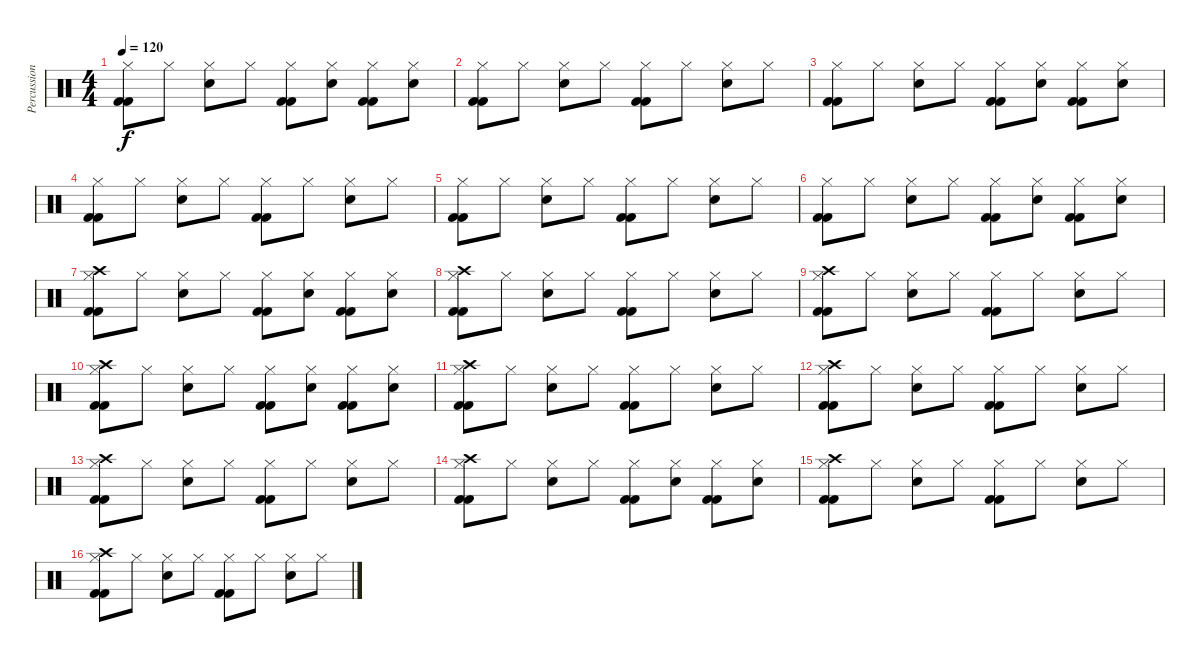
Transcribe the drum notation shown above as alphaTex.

\track ("Percussion" "Percussion") {instrument percussion}
\staff {score}
\articulation defaults
\ts (4 4)
\tempo 120
\clef neutral
\ks c
("Hi-Hat (closed)" "Kick (hit) 2" "Kick (hit) 2").8{dy f} "Hi-Hat (closed)".8 ("Hi-Hat (closed)" "Electric Snare (hit)").8 "Hi-Hat (closed)".8 ("Hi-Hat (closed)" "Kick (hit) 2" "Kick (hit) 2").8 ("Hi-Hat (closed)" "Electric Snare (hit)").8 ("Hi-Hat (closed)" "Kick (hit) 2" "Kick (hit) 2").8 ("Hi-Hat (closed)" "Electric Snare (hit)").8 |
("Hi-Hat (closed)" "Kick (hit) 2" "Kick (hit) 2").8 "Hi-Hat (closed)".8 ("Hi-Hat (closed)" "Electric Snare (hit)").8 "Hi-Hat (closed)".8 ("Hi-Hat (closed)" "Kick (hit) 2" "Kick (hit) 2").8 "Hi-Hat (closed)".8 ("Hi-Hat (closed)" "Electric Snare (hit)").8 "Hi-Hat (closed)".8 |
("Hi-Hat (closed)" "Kick (hit) 2" "Kick (hit) 2").8 "Hi-Hat (closed)".8 ("Hi-Hat (closed)" "Electric Snare (hit)").8 "Hi-Hat (closed)".8 ("Hi-Hat (closed)" "Kick (hit) 2" "Kick (hit) 2").8 ("Hi-Hat (closed)" "Electric Snare (hit)").8 ("Hi-Hat (closed)" "Kick (hit) 2" "Kick (hit) 2").8 ("Hi-Hat (closed)" "Electric Snare (hit)").8 |
("Hi-Hat (closed)" "Kick (hit) 2" "Kick (hit) 2").8 "Hi-Hat (closed)".8 ("Hi-Hat (closed)" "Electric Snare (hit)").8 "Hi-Hat (closed)".8 ("Hi-Hat (closed)" "Kick (hit) 2" "Kick (hit) 2").8 "Hi-Hat (closed)".8 ("Hi-Hat (closed)" "Electric Snare (hit)").8 "Hi-Hat (closed)".8 |
("Hi-Hat (closed)" "Kick (hit) 2" "Kick (hit) 2").8 "Hi-Hat (closed)".8 ("Hi-Hat (closed)" "Electric Snare (hit)").8 "Hi-Hat (closed)".8 ("Hi-Hat (closed)" "Kick (hit) 2" "Kick (hit) 2").8 "Hi-Hat (closed)".8 ("Hi-Hat (closed)" "Electric Snare (hit)").8 "Hi-Hat (closed)".8 |
("Hi-Hat (closed)" "Kick (hit) 2" "Kick (hit) 2").8 "Hi-Hat (closed)".8 ("Hi-Hat (closed)" "Electric Snare (hit)").8 "Hi-Hat (closed)".8 ("Hi-Hat (closed)" "Kick (hit) 2" "Kick (hit) 2").8 ("Hi-Hat (closed)" "Electric Snare (hit)").8 ("Hi-Hat (closed)" "Kick (hit) 2" "Kick (hit) 2").8 ("Hi-Hat (closed)" "Electric Snare (hit)").8 |
("Hi-Hat (closed)" "Crash high (hit)" "Kick (hit) 2" "Kick (hit) 2").8 "Hi-Hat (closed)".8 ("Hi-Hat (closed)" "Electric Snare (hit)").8 "Hi-Hat (closed)".8 ("Hi-Hat (closed)" "Kick (hit) 2" "Kick (hit) 2").8 ("Hi-Hat (closed)" "Electric Snare (hit)").8 ("Hi-Hat (closed)" "Kick (hit) 2" "Kick (hit) 2").8 ("Hi-Hat (closed)" "Electric Snare (hit)").8 |
("Hi-Hat (closed)" "Crash high (hit)" "Kick (hit) 2" "Kick (hit) 2").8 "Hi-Hat (closed)".8 ("Hi-Hat (closed)" "Electric Snare (hit)").8 "Hi-Hat (closed)".8 ("Hi-Hat (closed)" "Kick (hit) 2" "Kick (hit) 2").8 "Hi-Hat (closed)".8 ("Hi-Hat (closed)" "Electric Snare (hit)").8 "Hi-Hat (closed)".8 |
("Hi-Hat (closed)" "Crash high (hit)" "Kick (hit) 2" "Kick (hit) 2").8 "Hi-Hat (closed)".8 ("Hi-Hat (closed)" "Electric Snare (hit)").8 "Hi-Hat (closed)".8 ("Hi-Hat (closed)" "Kick (hit) 2" "Kick (hit) 2").8 "Hi-Hat (closed)".8 ("Hi-Hat (closed)" "Electric Snare (hit)").8 "Hi-Hat (closed)".8 |
("Hi-Hat (closed)" "Crash high (hit)" "Kick (hit) 2" "Kick (hit) 2").8 "Hi-Hat (closed)".8 ("Hi-Hat (closed)" "Electric Snare (hit)").8 "Hi-Hat (closed)".8 ("Hi-Hat (closed)" "Kick (hit) 2" "Kick (hit) 2").8 ("Hi-Hat (closed)" "Electric Snare (hit)").8 ("Hi-Hat (closed)" "Kick (hit) 2" "Kick (hit) 2").8 ("Hi-Hat (closed)" "Electric Snare (hit)").8 |
("Hi-Hat (closed)" "Crash high (hit)" "Kick (hit) 2" "Kick (hit) 2").8 "Hi-Hat (closed)".8 ("Hi-Hat (closed)" "Electric Snare (hit)").8 "Hi-Hat (closed)".8 ("Hi-Hat (closed)" "Kick (hit) 2" "Kick (hit) 2").8 "Hi-Hat (closed)".8 ("Hi-Hat (closed)" "Electric Snare (hit)").8 "Hi-Hat (closed)".8 |
("Hi-Hat (closed)" "Crash high (hit)" "Kick (hit) 2" "Kick (hit) 2").8 "Hi-Hat (closed)".8 ("Hi-Hat (closed)" "Electric Snare (hit)").8 "Hi-Hat (closed)".8 ("Hi-Hat (closed)" "Kick (hit) 2" "Kick (hit) 2").8 "Hi-Hat (closed)".8 ("Hi-Hat (closed)" "Electric Snare (hit)").8 "Hi-Hat (closed)".8 |
("Hi-Hat (closed)" "Crash high (hit)" "Kick (hit) 2" "Kick (hit) 2").8 "Hi-Hat (closed)".8 ("Hi-Hat (closed)" "Electric Snare (hit)").8 "Hi-Hat (closed)".8 ("Hi-Hat (closed)" "Kick (hit) 2" "Kick (hit) 2").8 "Hi-Hat (closed)".8 ("Hi-Hat (closed)" "Electric Snare (hit)").8 "Hi-Hat (closed)".8 |
("Hi-Hat (closed)" "Crash high (hit)" "Kick (hit) 2" "Kick (hit) 2").8 "Hi-Hat (closed)".8 ("Hi-Hat (closed)" "Electric Snare (hit)").8 "Hi-Hat (closed)".8 ("Hi-Hat (closed)" "Kick (hit) 2" "Kick (hit) 2").8 ("Hi-Hat (closed)" "Electric Snare (hit)").8 ("Hi-Hat (closed)" "Kick (hit) 2" "Kick (hit) 2").8 ("Hi-Hat (closed)" "Electric Snare (hit)").8 |
("Hi-Hat (closed)" "Crash high (hit)" "Kick (hit) 2" "Kick (hit) 2").8 "Hi-Hat (closed)".8 ("Hi-Hat (closed)" "Electric Snare (hit)").8 "Hi-Hat (closed)".8 ("Hi-Hat (closed)" "Kick (hit) 2" "Kick (hit) 2").8 "Hi-Hat (closed)".8 ("Hi-Hat (closed)" "Electric Snare (hit)").8 "Hi-Hat (closed)".8 |
("Hi-Hat (closed)" "Crash high (hit)" "Kick (hit) 2" "Kick (hit) 2").8 "Hi-Hat (closed)".8 ("Hi-Hat (closed)" "Electric Snare (hit)").8 "Hi-Hat (closed)".8 ("Hi-Hat (closed)" "Kick (hit) 2" "Kick (hit) 2").8 "Hi-Hat (closed)".8 ("Hi-Hat (closed)" "Electric Snare (hit)").8 "Hi-Hat (closed)".8
